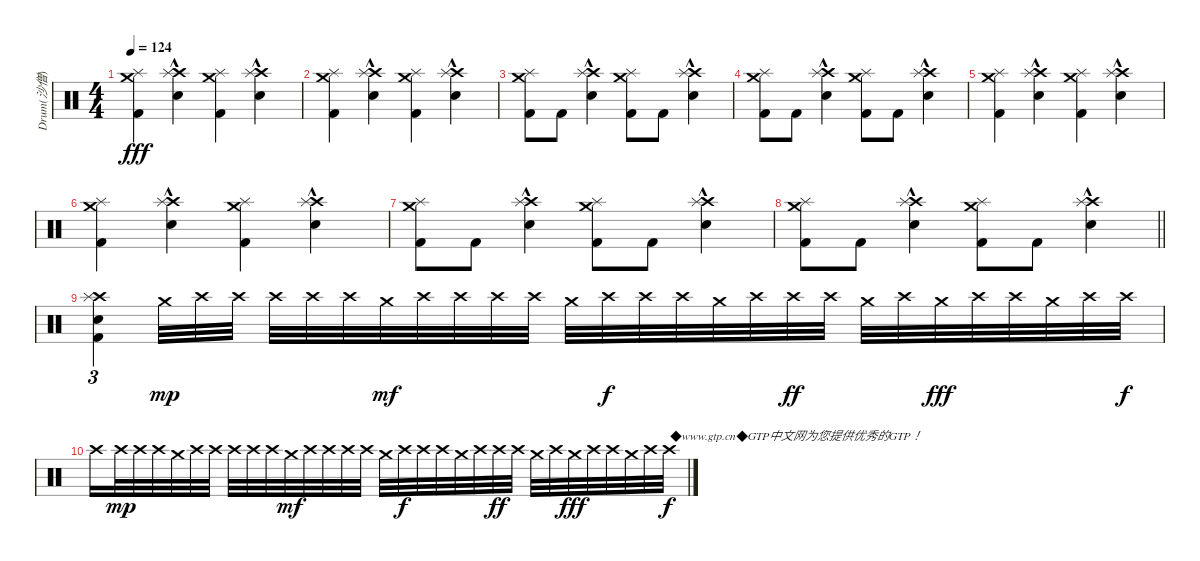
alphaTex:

\track ("Drum(沙僧)" "Drum(沙僧)") {instrument percussion}
\staff {score}
\articulation defaults
\ts (4 4)
\tempo 124
\clef neutral
\ks c
("Crash medium (hit)" "Splash (hit)" "Kick (hit) 2").4{dy fff volume 16 balance 8} ("Crash high (hit)" "Splash (hit)" "Snare (hit) 2"{hac}).4 ("Crash medium (hit)" "Splash (hit)" "Kick (hit) 2").4 ("Crash high (hit)" "Splash (hit)" "Snare (hit) 2"{hac}).4 |
("Crash medium (hit)" "Splash (hit)" "Kick (hit) 2").4 ("Crash high (hit)" "Splash (hit)" "Snare (hit) 2"{hac}).4 ("Crash medium (hit)" "Splash (hit)" "Kick (hit) 2").4 ("Crash high (hit)" "Splash (hit)" "Snare (hit) 2"{hac}).4 |
("Crash medium (hit)" "Splash (hit)" "Kick (hit) 2").8 "Kick (hit) 2".8 ("Crash high (hit)" "Splash (hit)" "Snare (hit) 2"{hac}).4 ("Crash medium (hit)" "Splash (hit)" "Kick (hit) 2").8 "Kick (hit) 2".8 ("Crash high (hit)" "Splash (hit)" "Snare (hit) 2"{hac}).4 |
("Crash medium (hit)" "Splash (hit)" "Kick (hit) 2").8 "Kick (hit) 2".8 ("Crash high (hit)" "Splash (hit)" "Snare (hit) 2"{hac}).4 ("Crash medium (hit)" "Splash (hit)" "Kick (hit) 2").8 "Kick (hit) 2".8 ("Crash high (hit)" "Splash (hit)" "Snare (hit) 2"{hac}).4 |
("Crash medium (hit)" "Splash (hit)" "Kick (hit) 2").4 ("Crash high (hit)" "Splash (hit)" "Snare (hit) 2"{hac}).4 ("Crash medium (hit)" "Splash (hit)" "Kick (hit) 2").4 ("Crash high (hit)" "Splash (hit)" "Snare (hit) 2"{hac}).4 |
("Crash medium (hit)" "Splash (hit)" "Kick (hit) 2").4 ("Crash high (hit)" "Splash (hit)" "Snare (hit) 2"{hac}).4 ("Crash medium (hit)" "Splash (hit)" "Kick (hit) 2").4 ("Crash high (hit)" "Splash (hit)" "Snare (hit) 2"{hac}).4 |
("Crash medium (hit)" "Splash (hit)" "Kick (hit) 2").8 "Kick (hit) 2".8 ("Crash high (hit)" "Splash (hit)" "Snare (hit) 2"{hac}).4 ("Crash medium (hit)" "Splash (hit)" "Kick (hit) 2").8 "Kick (hit) 2".8 ("Crash high (hit)" "Splash (hit)" "Snare (hit) 2"{hac}).4 |
\barLineRight lightlight
("Crash medium (hit)" "Splash (hit)" "Kick (hit) 2").8 "Kick (hit) 2".8 ("Crash high (hit)" "Splash (hit)" "Snare (hit) 2"{hac}).4 ("Crash medium (hit)" "Splash (hit)" "Kick (hit) 2").8 "Kick (hit) 2".8 ("Crash high (hit)" "Splash (hit)" "Snare (hit) 2"{hac}).4 |
("Crash high (hit)" "Splash (hit)" "Snare (hit) 2" "Kick (hit) 2").4{tu (3 2)} "Crash medium (hit)".32{dy mp} "Crash high (hit)".32 "Crash high (hit)".32 "Crash high (hit)".32 "Crash high (hit)".32 "Crash high (hit)".32 "Crash medium (hit)".32{dy mf} "Crash high (hit)".32 "Crash high (hit)".32 "Crash high (hit)".32 "Crash high (hit)".32 "Crash medium (hit)".32 "Crash high (hit)".32{dy f} "Crash high (hit)".32 "Crash high (hit)".32 "Crash medium (hit)".32 "Crash high (hit)".32 "Crash high (hit)".32{dy ff} "Crash high (hit)".32 "Crash medium (hit)".32 "Crash high (hit)".32 "Crash medium (hit)".32{dy fff} "Crash high (hit)".32 "Crash high (hit)".32 "Crash medium (hit)".32 "Crash high (hit)".32 "Crash high (hit)".32{dy f} |
"Crash high (hit)".16 "Crash high (hit)".32{dy mp} "Crash high (hit)".32 "Crash high (hit)".32 "Crash medium (hit)".32 "Crash high (hit)".32 "Crash high (hit)".32 "Crash high (hit)".32 "Crash high (hit)".32 "Crash high (hit)".32 "Crash medium (hit)".32{dy mf} "Crash high (hit)".32 "Crash high (hit)".32 "Crash high (hit)".32 "Crash high (hit)".32 "Crash medium (hit)".32 "Crash high (hit)".32{dy f} "Crash high (hit)".32 "Crash high (hit)".32 "Crash medium (hit)".32 "Crash high (hit)".32 "Crash high (hit)".32{dy ff} "Crash high (hit)".32 "Crash medium (hit)".32 "Crash high (hit)".32 "Crash medium (hit)".32{dy fff} "Crash high (hit)".32 "Crash high (hit)".32 "Crash medium (hit)".32 "Crash high (hit)".32 "Crash high (hit)".32{txt "◆www.gtp.cn◆GTP中文网为您提供优秀的GTP！" dy f}
